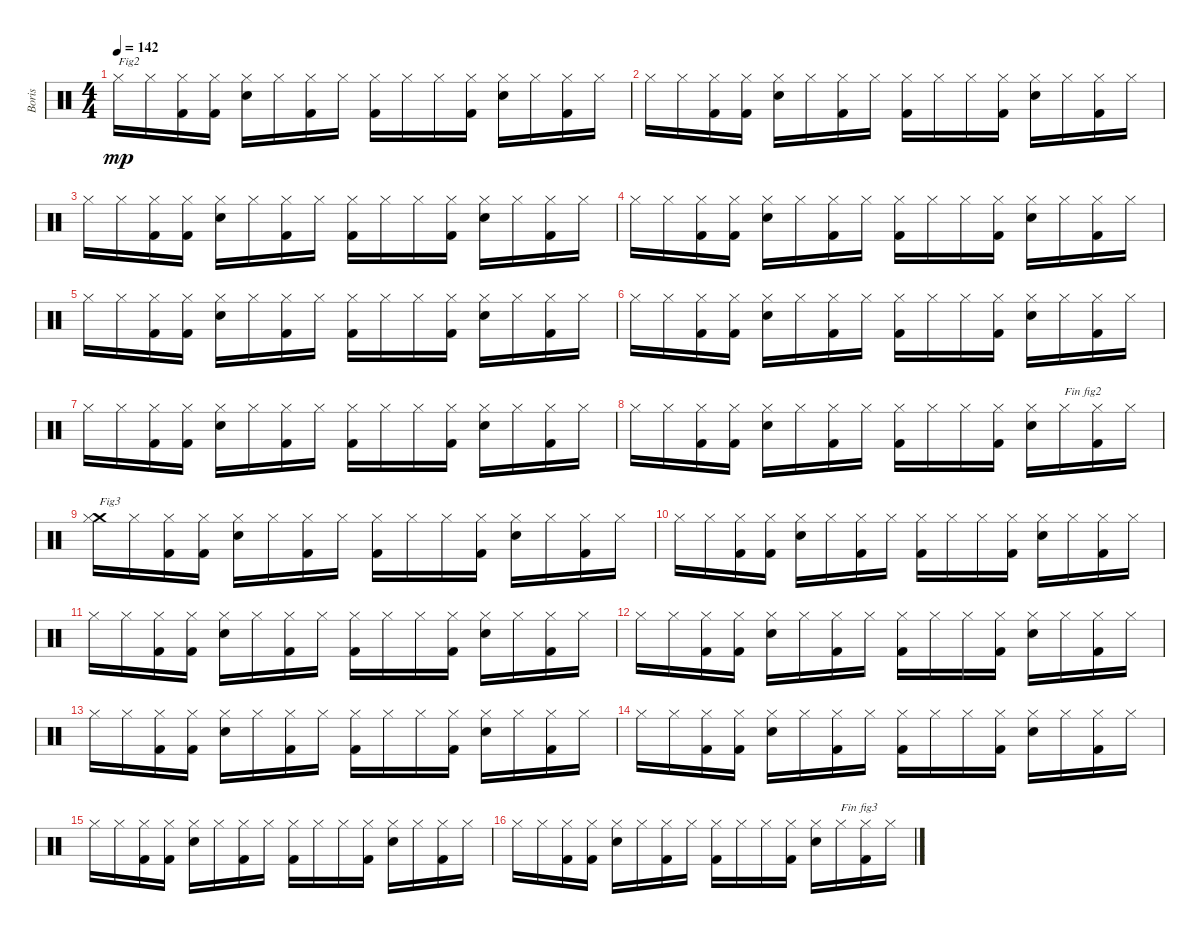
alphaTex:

\track ("Boris" "Boris") {instrument percussion}
\staff {score}
\articulation defaults
\ts (4 4)
\tempo 142
\clef neutral
\ks c "Hi-Hat (closed)".16{txt "Fig2" dy mp} "Hi-Hat (closed)".16
("Kick (hit) 2" "Hi-Hat (closed)").16 ("Kick (hit) 2" "Hi-Hat (closed)").16 ("Snare (hit) 2" "Hi-Hat (closed)").16 "Hi-Hat (closed)".16 ("Kick (hit) 2" "Hi-Hat (closed)").16 "Hi-Hat (closed)".16 ("Kick (hit) 2" "Hi-Hat (closed)").16 "Hi-Hat (closed)".16 "Hi-Hat (closed)".16 ("Kick (hit) 2" "Hi-Hat (closed)").16 ("Snare (hit) 2" "Hi-Hat (closed)").16 "Hi-Hat (closed)".16 ("Kick (hit) 2" "Hi-Hat (closed)").16 "Hi-Hat (closed)".16 |
"Hi-Hat (closed)".16 "Hi-Hat (closed)".16 ("Kick (hit) 2" "Hi-Hat (closed)").16 ("Kick (hit) 2" "Hi-Hat (closed)").16 ("Snare (hit) 2" "Hi-Hat (closed)").16 "Hi-Hat (closed)".16 ("Kick (hit) 2" "Hi-Hat (closed)").16 "Hi-Hat (closed)".16 ("Kick (hit) 2" "Hi-Hat (closed)").16 "Hi-Hat (closed)".16 "Hi-Hat (closed)".16 ("Kick (hit) 2" "Hi-Hat (closed)").16 ("Snare (hit) 2" "Hi-Hat (closed)").16 "Hi-Hat (closed)".16 ("Kick (hit) 2" "Hi-Hat (closed)").16 "Hi-Hat (closed)".16 |
"Hi-Hat (closed)".16 "Hi-Hat (closed)".16 ("Kick (hit) 2" "Hi-Hat (closed)").16 ("Kick (hit) 2" "Hi-Hat (closed)").16 ("Snare (hit) 2" "Hi-Hat (closed)").16 "Hi-Hat (closed)".16 ("Kick (hit) 2" "Hi-Hat (closed)").16 "Hi-Hat (closed)".16 ("Kick (hit) 2" "Hi-Hat (closed)").16 "Hi-Hat (closed)".16 "Hi-Hat (closed)".16 ("Kick (hit) 2" "Hi-Hat (closed)").16 ("Snare (hit) 2" "Hi-Hat (closed)").16 "Hi-Hat (closed)".16 ("Kick (hit) 2" "Hi-Hat (closed)").16 "Hi-Hat (closed)".16 |
"Hi-Hat (closed)".16 "Hi-Hat (closed)".16 ("Kick (hit) 2" "Hi-Hat (closed)").16 ("Kick (hit) 2" "Hi-Hat (closed)").16 ("Snare (hit) 2" "Hi-Hat (closed)").16 "Hi-Hat (closed)".16 ("Kick (hit) 2" "Hi-Hat (closed)").16 "Hi-Hat (closed)".16 ("Kick (hit) 2" "Hi-Hat (closed)").16 "Hi-Hat (closed)".16 "Hi-Hat (closed)".16 ("Kick (hit) 2" "Hi-Hat (closed)").16 ("Snare (hit) 2" "Hi-Hat (closed)").16 "Hi-Hat (closed)".16 ("Kick (hit) 2" "Hi-Hat (closed)").16 "Hi-Hat (closed)".16 |
"Hi-Hat (closed)".16 "Hi-Hat (closed)".16 ("Kick (hit) 2" "Hi-Hat (closed)").16 ("Kick (hit) 2" "Hi-Hat (closed)").16 ("Snare (hit) 2" "Hi-Hat (closed)").16 "Hi-Hat (closed)".16 ("Kick (hit) 2" "Hi-Hat (closed)").16 "Hi-Hat (closed)".16 ("Kick (hit) 2" "Hi-Hat (closed)").16 "Hi-Hat (closed)".16 "Hi-Hat (closed)".16 ("Kick (hit) 2" "Hi-Hat (closed)").16 ("Snare (hit) 2" "Hi-Hat (closed)").16 "Hi-Hat (closed)".16 ("Kick (hit) 2" "Hi-Hat (closed)").16 "Hi-Hat (closed)".16 |
"Hi-Hat (closed)".16 "Hi-Hat (closed)".16 ("Kick (hit) 2" "Hi-Hat (closed)").16 ("Kick (hit) 2" "Hi-Hat (closed)").16 ("Snare (hit) 2" "Hi-Hat (closed)").16 "Hi-Hat (closed)".16 ("Kick (hit) 2" "Hi-Hat (closed)").16 "Hi-Hat (closed)".16 ("Kick (hit) 2" "Hi-Hat (closed)").16 "Hi-Hat (closed)".16 "Hi-Hat (closed)".16 ("Kick (hit) 2" "Hi-Hat (closed)").16 ("Snare (hit) 2" "Hi-Hat (closed)").16 "Hi-Hat (closed)".16 ("Kick (hit) 2" "Hi-Hat (closed)").16 "Hi-Hat (closed)".16 |
"Hi-Hat (closed)".16 "Hi-Hat (closed)".16 ("Kick (hit) 2" "Hi-Hat (closed)").16 ("Kick (hit) 2" "Hi-Hat (closed)").16 ("Snare (hit) 2" "Hi-Hat (closed)").16 "Hi-Hat (closed)".16 ("Kick (hit) 2" "Hi-Hat (closed)").16 "Hi-Hat (closed)".16 ("Kick (hit) 2" "Hi-Hat (closed)").16 "Hi-Hat (closed)".16 "Hi-Hat (closed)".16 ("Kick (hit) 2" "Hi-Hat (closed)").16 ("Snare (hit) 2" "Hi-Hat (closed)").16 "Hi-Hat (closed)".16 ("Kick (hit) 2" "Hi-Hat (closed)").16 "Hi-Hat (closed)".16 |
"Hi-Hat (closed)".16 "Hi-Hat (closed)".16 ("Kick (hit) 2" "Hi-Hat (closed)").16 ("Kick (hit) 2" "Hi-Hat (closed)").16 ("Snare (hit) 2" "Hi-Hat (closed)").16 "Hi-Hat (closed)".16 ("Kick (hit) 2" "Hi-Hat (closed)").16 "Hi-Hat (closed)".16 ("Kick (hit) 2" "Hi-Hat (closed)").16 "Hi-Hat (closed)".16 "Hi-Hat (closed)".16 ("Kick (hit) 2" "Hi-Hat (closed)").16 ("Snare (hit) 2" "Hi-Hat (closed)").16 "Hi-Hat (closed)".16{txt "Fin fig2"} ("Kick (hit) 2" "Hi-Hat (closed)").16 "Hi-Hat (closed)".16 |
("Crash medium (hit)" "Hi-Hat (closed)").16{txt "Fig3"} "Hi-Hat (closed)".16 ("Kick (hit) 2" "Hi-Hat (closed)").16 ("Kick (hit) 2" "Hi-Hat (closed)").16 ("Snare (hit) 2" "Hi-Hat (closed)").16 "Hi-Hat (closed)".16 ("Kick (hit) 2" "Hi-Hat (closed)").16 "Hi-Hat (closed)".16 ("Kick (hit) 2" "Hi-Hat (closed)").16 "Hi-Hat (closed)".16 "Hi-Hat (closed)".16 ("Kick (hit) 2" "Hi-Hat (closed)").16 ("Snare (hit) 2" "Hi-Hat (closed)").16 "Hi-Hat (closed)".16 ("Kick (hit) 2" "Hi-Hat (closed)").16 "Hi-Hat (closed)".16 |
"Hi-Hat (closed)".16 "Hi-Hat (closed)".16 ("Kick (hit) 2" "Hi-Hat (closed)").16 ("Kick (hit) 2" "Hi-Hat (closed)").16 ("Snare (hit) 2" "Hi-Hat (closed)").16 "Hi-Hat (closed)".16 ("Kick (hit) 2" "Hi-Hat (closed)").16 "Hi-Hat (closed)".16 ("Kick (hit) 2" "Hi-Hat (closed)").16 "Hi-Hat (closed)".16 "Hi-Hat (closed)".16 ("Kick (hit) 2" "Hi-Hat (closed)").16 ("Snare (hit) 2" "Hi-Hat (closed)").16 "Hi-Hat (closed)".16 ("Kick (hit) 2" "Hi-Hat (closed)").16 "Hi-Hat (closed)".16 |
"Hi-Hat (closed)".16 "Hi-Hat (closed)".16 ("Kick (hit) 2" "Hi-Hat (closed)").16 ("Kick (hit) 2" "Hi-Hat (closed)").16 ("Snare (hit) 2" "Hi-Hat (closed)").16 "Hi-Hat (closed)".16 ("Kick (hit) 2" "Hi-Hat (closed)").16 "Hi-Hat (closed)".16 ("Kick (hit) 2" "Hi-Hat (closed)").16 "Hi-Hat (closed)".16 "Hi-Hat (closed)".16 ("Kick (hit) 2" "Hi-Hat (closed)").16 ("Snare (hit) 2" "Hi-Hat (closed)").16 "Hi-Hat (closed)".16 ("Kick (hit) 2" "Hi-Hat (closed)").16 "Hi-Hat (closed)".16 |
"Hi-Hat (closed)".16 "Hi-Hat (closed)".16 ("Kick (hit) 2" "Hi-Hat (closed)").16 ("Kick (hit) 2" "Hi-Hat (closed)").16 ("Snare (hit) 2" "Hi-Hat (closed)").16 "Hi-Hat (closed)".16 ("Kick (hit) 2" "Hi-Hat (closed)").16 "Hi-Hat (closed)".16 ("Kick (hit) 2" "Hi-Hat (closed)").16 "Hi-Hat (closed)".16 "Hi-Hat (closed)".16 ("Kick (hit) 2" "Hi-Hat (closed)").16 ("Snare (hit) 2" "Hi-Hat (closed)").16 "Hi-Hat (closed)".16 ("Kick (hit) 2" "Hi-Hat (closed)").16 "Hi-Hat (closed)".16 |
"Hi-Hat (closed)".16 "Hi-Hat (closed)".16 ("Kick (hit) 2" "Hi-Hat (closed)").16 ("Kick (hit) 2" "Hi-Hat (closed)").16 ("Snare (hit) 2" "Hi-Hat (closed)").16 "Hi-Hat (closed)".16 ("Kick (hit) 2" "Hi-Hat (closed)").16 "Hi-Hat (closed)".16 ("Kick (hit) 2" "Hi-Hat (closed)").16 "Hi-Hat (closed)".16 "Hi-Hat (closed)".16 ("Kick (hit) 2" "Hi-Hat (closed)").16 ("Snare (hit) 2" "Hi-Hat (closed)").16 "Hi-Hat (closed)".16 ("Kick (hit) 2" "Hi-Hat (closed)").16 "Hi-Hat (closed)".16 |
"Hi-Hat (closed)".16 "Hi-Hat (closed)".16 ("Kick (hit) 2" "Hi-Hat (closed)").16 ("Kick (hit) 2" "Hi-Hat (closed)").16 ("Snare (hit) 2" "Hi-Hat (closed)").16 "Hi-Hat (closed)".16 ("Kick (hit) 2" "Hi-Hat (closed)").16 "Hi-Hat (closed)".16 ("Kick (hit) 2" "Hi-Hat (closed)").16 "Hi-Hat (closed)".16 "Hi-Hat (closed)".16 ("Kick (hit) 2" "Hi-Hat (closed)").16 ("Snare (hit) 2" "Hi-Hat (closed)").16 "Hi-Hat (closed)".16 ("Kick (hit) 2" "Hi-Hat (closed)").16 "Hi-Hat (closed)".16 |
"Hi-Hat (closed)".16 "Hi-Hat (closed)".16 ("Kick (hit) 2" "Hi-Hat (closed)").16 ("Kick (hit) 2" "Hi-Hat (closed)").16 ("Snare (hit) 2" "Hi-Hat (closed)").16 "Hi-Hat (closed)".16 ("Kick (hit) 2" "Hi-Hat (closed)").16 "Hi-Hat (closed)".16 ("Kick (hit) 2" "Hi-Hat (closed)").16 "Hi-Hat (closed)".16 "Hi-Hat (closed)".16 ("Kick (hit) 2" "Hi-Hat (closed)").16 ("Snare (hit) 2" "Hi-Hat (closed)").16 "Hi-Hat (closed)".16 ("Kick (hit) 2" "Hi-Hat (closed)").16 "Hi-Hat (closed)".16 |
"Hi-Hat (closed)".16 "Hi-Hat (closed)".16 ("Kick (hit) 2" "Hi-Hat (closed)").16 ("Kick (hit) 2" "Hi-Hat (closed)").16 ("Snare (hit) 2" "Hi-Hat (closed)").16 "Hi-Hat (closed)".16 ("Kick (hit) 2" "Hi-Hat (closed)").16 "Hi-Hat (closed)".16 ("Kick (hit) 2" "Hi-Hat (closed)").16 "Hi-Hat (closed)".16 "Hi-Hat (closed)".16 ("Kick (hit) 2" "Hi-Hat (closed)").16 ("Snare (hit) 2" "Hi-Hat (closed)").16 "Hi-Hat (closed)".16{txt "Fin fig3"} ("Kick (hit) 2" "Hi-Hat (closed)").16 "Hi-Hat (closed)".16
